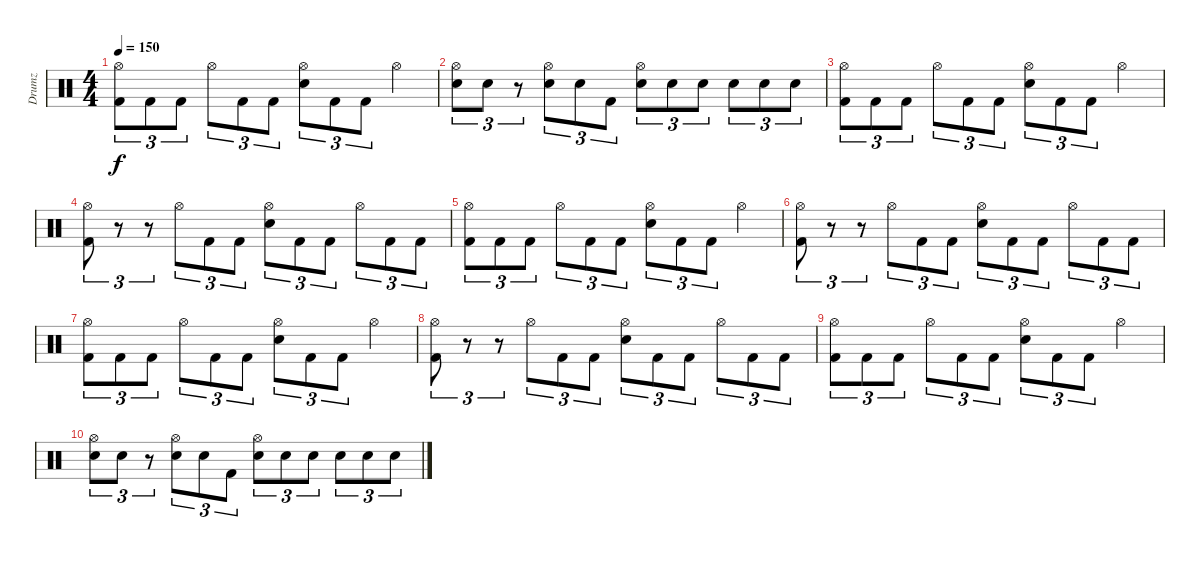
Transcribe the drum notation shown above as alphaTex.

\track ("Drumz" "Drumz") {instrument percussion}
\staff {score}
\articulation defaults
\ts (4 4)
\tempo 150
\clef neutral
\ks c
("Hi-Hat (open)" "Kick (hit) 2").8{tu (3 2) dy f} "Kick (hit) 2".8{tu (3 2)} "Kick (hit) 2".8{tu (3 2)} "Hi-Hat (open)".8{tu (3 2)} "Kick (hit) 2".8{tu (3 2)} "Kick (hit) 2".8{tu (3 2)} ("Hi-Hat (open)" "Snare (hit) 2").8{tu (3 2)} "Kick (hit) 2".8{tu (3 2)} "Kick (hit) 2".8{tu (3 2)} "Hi-Hat (open)".4 |
("Hi-Hat (open)" "Snare (hit) 2").8{tu (3 2)} "Snare (hit) 2".8{tu (3 2)} r.8{tu (3 2)} ("Hi-Hat (open)" "Snare (hit) 2").8{tu (3 2)} "Snare (hit) 2".8{tu (3 2)} "Kick (hit) 2".8{tu (3 2)} ("Hi-Hat (open)" "Snare (hit) 2").8{tu (3 2)} "Snare (hit) 2".8{tu (3 2)} "Snare (hit) 2".8{tu (3 2)} "Snare (hit) 2".8{tu (3 2)} "Snare (hit) 2".8{tu (3 2)} "Snare (hit) 2".8{tu (3 2)} |
("Hi-Hat (open)" "Kick (hit) 2").8{tu (3 2)} "Kick (hit) 2".8{tu (3 2)} "Kick (hit) 2".8{tu (3 2)} "Hi-Hat (open)".8{tu (3 2)} "Kick (hit) 2".8{tu (3 2)} "Kick (hit) 2".8{tu (3 2)} ("Hi-Hat (open)" "Snare (hit) 2").8{tu (3 2)} "Kick (hit) 2".8{tu (3 2)} "Kick (hit) 2".8{tu (3 2)} "Hi-Hat (open)".4 |
("Hi-Hat (open)" "Kick (hit) 2").8{tu (3 2)} r.8{tu (3 2)} r.8{tu (3 2)} "Hi-Hat (open)".8{tu (3 2)} "Kick (hit) 2".8{tu (3 2)} "Kick (hit) 2".8{tu (3 2)} ("Hi-Hat (open)" "Snare (hit) 2").8{tu (3 2)} "Kick (hit) 2".8{tu (3 2)} "Kick (hit) 2".8{tu (3 2)} "Hi-Hat (open)".8{tu (3 2)} "Kick (hit) 2".8{tu (3 2)} "Kick (hit) 2".8{tu (3 2)} |
("Hi-Hat (open)" "Kick (hit) 2").8{tu (3 2)} "Kick (hit) 2".8{tu (3 2)} "Kick (hit) 2".8{tu (3 2)} "Hi-Hat (open)".8{tu (3 2)} "Kick (hit) 2".8{tu (3 2)} "Kick (hit) 2".8{tu (3 2)} ("Hi-Hat (open)" "Snare (hit) 2").8{tu (3 2)} "Kick (hit) 2".8{tu (3 2)} "Kick (hit) 2".8{tu (3 2)} "Hi-Hat (open)".4 |
("Hi-Hat (open)" "Kick (hit) 2").8{tu (3 2)} r.8{tu (3 2)} r.8{tu (3 2)} "Hi-Hat (open)".8{tu (3 2)} "Kick (hit) 2".8{tu (3 2)} "Kick (hit) 2".8{tu (3 2)} ("Hi-Hat (open)" "Snare (hit) 2").8{tu (3 2)} "Kick (hit) 2".8{tu (3 2)} "Kick (hit) 2".8{tu (3 2)} "Hi-Hat (open)".8{tu (3 2)} "Kick (hit) 2".8{tu (3 2)} "Kick (hit) 2".8{tu (3 2)} |
("Hi-Hat (open)" "Kick (hit) 2").8{tu (3 2)} "Kick (hit) 2".8{tu (3 2)} "Kick (hit) 2".8{tu (3 2)} "Hi-Hat (open)".8{tu (3 2)} "Kick (hit) 2".8{tu (3 2)} "Kick (hit) 2".8{tu (3 2)} ("Hi-Hat (open)" "Snare (hit) 2").8{tu (3 2)} "Kick (hit) 2".8{tu (3 2)} "Kick (hit) 2".8{tu (3 2)} "Hi-Hat (open)".4 |
("Hi-Hat (open)" "Kick (hit) 2").8{tu (3 2)} r.8{tu (3 2)} r.8{tu (3 2)} "Hi-Hat (open)".8{tu (3 2)} "Kick (hit) 2".8{tu (3 2)} "Kick (hit) 2".8{tu (3 2)} ("Hi-Hat (open)" "Snare (hit) 2").8{tu (3 2)} "Kick (hit) 2".8{tu (3 2)} "Kick (hit) 2".8{tu (3 2)} "Hi-Hat (open)".8{tu (3 2)} "Kick (hit) 2".8{tu (3 2)} "Kick (hit) 2".8{tu (3 2)} |
("Hi-Hat (open)" "Kick (hit) 2").8{tu (3 2)} "Kick (hit) 2".8{tu (3 2)} "Kick (hit) 2".8{tu (3 2)} "Hi-Hat (open)".8{tu (3 2)} "Kick (hit) 2".8{tu (3 2)} "Kick (hit) 2".8{tu (3 2)} ("Hi-Hat (open)" "Snare (hit) 2").8{tu (3 2)} "Kick (hit) 2".8{tu (3 2)} "Kick (hit) 2".8{tu (3 2)} "Hi-Hat (open)".4 |
("Hi-Hat (open)" "Snare (hit) 2").8{tu (3 2)} "Snare (hit) 2".8{tu (3 2)} r.8{tu (3 2)} ("Hi-Hat (open)" "Snare (hit) 2").8{tu (3 2)} "Snare (hit) 2".8{tu (3 2)} "Kick (hit) 2".8{tu (3 2)} ("Hi-Hat (open)" "Snare (hit) 2").8{tu (3 2)} "Snare (hit) 2".8{tu (3 2)} "Snare (hit) 2".8{tu (3 2)} "Snare (hit) 2".8{tu (3 2)} "Snare (hit) 2".8{tu (3 2)} "Snare (hit) 2".8{tu (3 2)}
